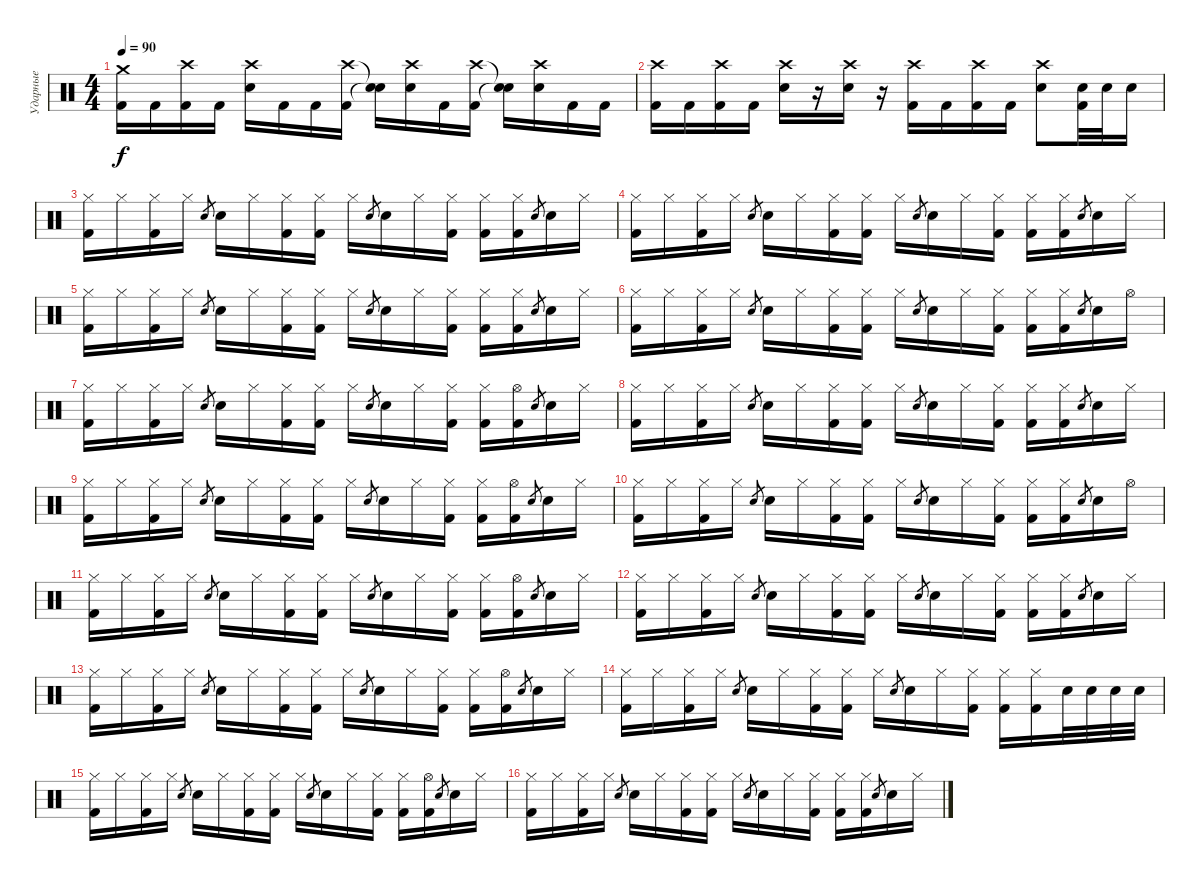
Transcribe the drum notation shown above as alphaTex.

\track ("Ударные" "Ударные") {instrument percussion}
\staff {score}
\articulation defaults
\ts (4 4)
\tempo 90
\clef neutral
\ks c
("Crash medium (hit)" "Kick (hit) 2").16{dy f} "Kick (hit) 2".16 ("Crash high (hit)" "Kick (hit) 2").16 "Kick (hit) 2".16 ("Crash high (hit)" "Electric Snare (hit)").16 "Kick (hit) 2".16 "Kick (hit) 2".16 ("Crash high (hit)" "Kick (hit) 2").16 ("Snare (hit)"{t} "Snare (hit)"{t}).16 ("Crash high (hit)" "Electric Snare (hit)").16 "Kick (hit) 2".16 ("Crash high (hit)" "Kick (hit) 2").16 ("Snare (hit)"{t} "Snare (hit)"{t}).16 ("Crash high (hit)" "Electric Snare (hit)").16 "Kick (hit) 2".16 "Kick (hit) 2".16 |
("Crash high (hit)" "Kick (hit) 2").16 "Kick (hit) 2".16 ("Crash high (hit)" "Kick (hit) 2").16 "Kick (hit) 2".16 ("Crash high (hit)" "Electric Snare (hit)").16 r.16 ("Crash high (hit)" "Electric Snare (hit)").16 r.16 ("Crash high (hit)" "Kick (hit) 2").16 "Kick (hit) 2".16 ("Crash high (hit)" "Kick (hit) 2").16 "Kick (hit) 2".16 ("Crash high (hit)" "Electric Snare (hit)").8 ("Electric Snare (hit)" "Kick (hit) 2").32 "Electric Snare (hit)".32 "Electric Snare (hit)".16 |
("Hi-Hat (closed)" "Kick (hit) 2").16 "Hi-Hat (closed)".16 ("Hi-Hat (closed)" "Kick (hit) 2").16 "Hi-Hat (closed)".16 "Electric Snare (hit)".8{gr} "Electric Snare (hit)".16 "Hi-Hat (closed)".16 ("Hi-Hat (closed)" "Kick (hit) 2").16 ("Hi-Hat (closed)" "Kick (hit) 2").16 "Hi-Hat (closed)".16 "Electric Snare (hit)".8{gr} "Electric Snare (hit)".16 "Hi-Hat (closed)".16 ("Hi-Hat (closed)" "Kick (hit) 2").16 ("Hi-Hat (closed)" "Kick (hit) 2").16 ("Hi-Hat (closed)" "Kick (hit) 2").16 "Electric Snare (hit)".8{gr} "Electric Snare (hit)".16 "Hi-Hat (closed)".16 |
("Hi-Hat (closed)" "Kick (hit) 2").16 "Hi-Hat (closed)".16 ("Hi-Hat (closed)" "Kick (hit) 2").16 "Hi-Hat (closed)".16 "Electric Snare (hit)".8{gr} "Electric Snare (hit)".16 "Hi-Hat (closed)".16 ("Hi-Hat (closed)" "Kick (hit) 2").16 ("Hi-Hat (closed)" "Kick (hit) 2").16 "Hi-Hat (closed)".16 "Electric Snare (hit)".8{gr} "Electric Snare (hit)".16 "Hi-Hat (closed)".16 ("Hi-Hat (closed)" "Kick (hit) 2").16 ("Hi-Hat (closed)" "Kick (hit) 2").16 ("Hi-Hat (closed)" "Kick (hit) 2").16 "Electric Snare (hit)".8{gr} "Electric Snare (hit)".16 "Hi-Hat (closed)".16 |
("Hi-Hat (closed)" "Kick (hit) 2").16 "Hi-Hat (closed)".16 ("Hi-Hat (closed)" "Kick (hit) 2").16 "Hi-Hat (closed)".16 "Electric Snare (hit)".8{gr} "Electric Snare (hit)".16 "Hi-Hat (closed)".16 ("Hi-Hat (closed)" "Kick (hit) 2").16 ("Hi-Hat (closed)" "Kick (hit) 2").16 "Hi-Hat (closed)".16 "Electric Snare (hit)".8{gr} "Electric Snare (hit)".16 "Hi-Hat (closed)".16 ("Hi-Hat (closed)" "Kick (hit) 2").16 ("Hi-Hat (closed)" "Kick (hit) 2").16 ("Hi-Hat (closed)" "Kick (hit) 2").16 "Electric Snare (hit)".8{gr} "Electric Snare (hit)".16 "Hi-Hat (closed)".16 |
("Hi-Hat (closed)" "Kick (hit) 2").16 "Hi-Hat (closed)".16 ("Hi-Hat (closed)" "Kick (hit) 2").16 "Hi-Hat (closed)".16 "Electric Snare (hit)".8{gr} "Electric Snare (hit)".16 "Hi-Hat (closed)".16 ("Hi-Hat (closed)" "Kick (hit) 2").16 ("Hi-Hat (closed)" "Kick (hit) 2").16 "Hi-Hat (closed)".16 "Electric Snare (hit)".8{gr} "Electric Snare (hit)".16 "Hi-Hat (closed)".16 ("Hi-Hat (closed)" "Kick (hit) 2").16 ("Hi-Hat (closed)" "Kick (hit) 2").16 ("Hi-Hat (closed)" "Kick (hit) 2").16 "Electric Snare (hit)".8{gr} "Electric Snare (hit)".16 "Hi-Hat (open)".16 |
("Hi-Hat (closed)" "Kick (hit) 2").16 "Hi-Hat (closed)".16 ("Hi-Hat (closed)" "Kick (hit) 2").16 "Hi-Hat (closed)".16 "Electric Snare (hit)".8{gr} "Electric Snare (hit)".16 "Hi-Hat (closed)".16 ("Hi-Hat (closed)" "Kick (hit) 2").16 ("Hi-Hat (closed)" "Kick (hit) 2").16 "Hi-Hat (closed)".16 "Electric Snare (hit)".8{gr} "Electric Snare (hit)".16 "Hi-Hat (closed)".16 ("Hi-Hat (closed)" "Kick (hit) 2").16 ("Hi-Hat (closed)" "Kick (hit) 2").16 ("Hi-Hat (open)" "Kick (hit) 2").16 "Electric Snare (hit)".8{gr} "Electric Snare (hit)".16 "Hi-Hat (closed)".16 |
("Hi-Hat (closed)" "Kick (hit) 2").16 "Hi-Hat (closed)".16 ("Hi-Hat (closed)" "Kick (hit) 2").16 "Hi-Hat (closed)".16 "Electric Snare (hit)".8{gr} "Electric Snare (hit)".16 "Hi-Hat (closed)".16 ("Hi-Hat (closed)" "Kick (hit) 2").16 ("Hi-Hat (closed)" "Kick (hit) 2").16 "Hi-Hat (closed)".16 "Electric Snare (hit)".8{gr} "Electric Snare (hit)".16 "Hi-Hat (closed)".16 ("Hi-Hat (closed)" "Kick (hit) 2").16 ("Hi-Hat (closed)" "Kick (hit) 2").16 ("Hi-Hat (closed)" "Kick (hit) 2").16 "Electric Snare (hit)".8{gr} "Electric Snare (hit)".16 "Hi-Hat (closed)".16 |
("Hi-Hat (closed)" "Kick (hit) 2").16 "Hi-Hat (closed)".16 ("Hi-Hat (closed)" "Kick (hit) 2").16 "Hi-Hat (closed)".16 "Electric Snare (hit)".8{gr} "Electric Snare (hit)".16 "Hi-Hat (closed)".16 ("Hi-Hat (closed)" "Kick (hit) 2").16 ("Hi-Hat (closed)" "Kick (hit) 2").16 "Hi-Hat (closed)".16 "Electric Snare (hit)".8{gr} "Electric Snare (hit)".16 "Hi-Hat (closed)".16 ("Hi-Hat (closed)" "Kick (hit) 2").16 ("Hi-Hat (closed)" "Kick (hit) 2").16 ("Hi-Hat (open)" "Kick (hit) 2").16 "Electric Snare (hit)".8{gr} "Electric Snare (hit)".16 "Hi-Hat (closed)".16 |
("Hi-Hat (closed)" "Kick (hit) 2").16 "Hi-Hat (closed)".16 ("Hi-Hat (closed)" "Kick (hit) 2").16 "Hi-Hat (closed)".16 "Electric Snare (hit)".8{gr} "Electric Snare (hit)".16 "Hi-Hat (closed)".16 ("Hi-Hat (closed)" "Kick (hit) 2").16 ("Hi-Hat (closed)" "Kick (hit) 2").16 "Hi-Hat (closed)".16 "Electric Snare (hit)".8{gr} "Electric Snare (hit)".16 "Hi-Hat (closed)".16 ("Hi-Hat (closed)" "Kick (hit) 2").16 ("Hi-Hat (closed)" "Kick (hit) 2").16 ("Hi-Hat (closed)" "Kick (hit) 2").16 "Electric Snare (hit)".8{gr} "Electric Snare (hit)".16 "Hi-Hat (open)".16 |
("Hi-Hat (closed)" "Kick (hit) 2").16 "Hi-Hat (closed)".16 ("Hi-Hat (closed)" "Kick (hit) 2").16 "Hi-Hat (closed)".16 "Electric Snare (hit)".8{gr} "Electric Snare (hit)".16 "Hi-Hat (closed)".16 ("Hi-Hat (closed)" "Kick (hit) 2").16 ("Hi-Hat (closed)" "Kick (hit) 2").16 "Hi-Hat (closed)".16 "Electric Snare (hit)".8{gr} "Electric Snare (hit)".16 "Hi-Hat (closed)".16 ("Hi-Hat (closed)" "Kick (hit) 2").16 ("Hi-Hat (closed)" "Kick (hit) 2").16 ("Hi-Hat (open)" "Kick (hit) 2").16 "Electric Snare (hit)".8{gr} "Electric Snare (hit)".16 "Hi-Hat (closed)".16 |
("Hi-Hat (closed)" "Kick (hit) 2").16 "Hi-Hat (closed)".16 ("Hi-Hat (closed)" "Kick (hit) 2").16 "Hi-Hat (closed)".16 "Electric Snare (hit)".8{gr} "Electric Snare (hit)".16 "Hi-Hat (closed)".16 ("Hi-Hat (closed)" "Kick (hit) 2").16 ("Hi-Hat (closed)" "Kick (hit) 2").16 "Hi-Hat (closed)".16 "Electric Snare (hit)".8{gr} "Electric Snare (hit)".16 "Hi-Hat (closed)".16 ("Hi-Hat (closed)" "Kick (hit) 2").16 ("Hi-Hat (closed)" "Kick (hit) 2").16 ("Hi-Hat (closed)" "Kick (hit) 2").16 "Electric Snare (hit)".8{gr} "Electric Snare (hit)".16 "Hi-Hat (closed)".16 |
("Hi-Hat (closed)" "Kick (hit) 2").16 "Hi-Hat (closed)".16 ("Hi-Hat (closed)" "Kick (hit) 2").16 "Hi-Hat (closed)".16 "Electric Snare (hit)".8{gr} "Electric Snare (hit)".16 "Hi-Hat (closed)".16 ("Hi-Hat (closed)" "Kick (hit) 2").16 ("Hi-Hat (closed)" "Kick (hit) 2").16 "Hi-Hat (closed)".16 "Electric Snare (hit)".8{gr} "Electric Snare (hit)".16 "Hi-Hat (closed)".16 ("Hi-Hat (closed)" "Kick (hit) 2").16 ("Hi-Hat (closed)" "Kick (hit) 2").16 ("Hi-Hat (open)" "Kick (hit) 2").16 "Electric Snare (hit)".8{gr} "Electric Snare (hit)".16 "Hi-Hat (closed)".16 |
("Hi-Hat (closed)" "Kick (hit) 2").16 "Hi-Hat (closed)".16 ("Hi-Hat (closed)" "Kick (hit) 2").16 "Hi-Hat (closed)".16 "Electric Snare (hit)".8{gr} "Electric Snare (hit)".16 "Hi-Hat (closed)".16 ("Hi-Hat (closed)" "Kick (hit) 2").16 ("Hi-Hat (closed)" "Kick (hit) 2").16 "Hi-Hat (closed)".16 "Electric Snare (hit)".8{gr} "Electric Snare (hit)".16 "Hi-Hat (closed)".16 ("Hi-Hat (closed)" "Kick (hit) 2").16 ("Hi-Hat (closed)" "Kick (hit) 2").16 ("Hi-Hat (closed)" "Kick (hit) 2").16 "Electric Snare (hit)".32 "Electric Snare (hit)".32 "Electric Snare (hit)".32 "Electric Snare (hit)".32 |
("Hi-Hat (closed)" "Kick (hit) 2").16 "Hi-Hat (closed)".16 ("Hi-Hat (closed)" "Kick (hit) 2").16 "Hi-Hat (closed)".16 "Electric Snare (hit)".8{gr} "Electric Snare (hit)".16 "Hi-Hat (closed)".16 ("Hi-Hat (closed)" "Kick (hit) 2").16 ("Hi-Hat (closed)" "Kick (hit) 2").16 "Hi-Hat (closed)".16 "Electric Snare (hit)".8{gr} "Electric Snare (hit)".16 "Hi-Hat (closed)".16 ("Hi-Hat (closed)" "Kick (hit) 2").16 ("Hi-Hat (closed)" "Kick (hit) 2").16 ("Hi-Hat (open)" "Kick (hit) 2").16 "Electric Snare (hit)".8{gr} "Electric Snare (hit)".16 "Hi-Hat (closed)".16 |
("Hi-Hat (closed)" "Kick (hit) 2").16 "Hi-Hat (closed)".16 ("Hi-Hat (closed)" "Kick (hit) 2").16 "Hi-Hat (closed)".16 "Electric Snare (hit)".8{gr} "Electric Snare (hit)".16 "Hi-Hat (closed)".16 ("Hi-Hat (closed)" "Kick (hit) 2").16 ("Hi-Hat (closed)" "Kick (hit) 2").16 "Hi-Hat (closed)".16 "Electric Snare (hit)".8{gr} "Electric Snare (hit)".16 "Hi-Hat (closed)".16 ("Hi-Hat (closed)" "Kick (hit) 2").16 ("Hi-Hat (closed)" "Kick (hit) 2").16 ("Hi-Hat (closed)" "Kick (hit) 2").16 "Electric Snare (hit)".8{gr} "Electric Snare (hit)".16 "Hi-Hat (closed)".16
